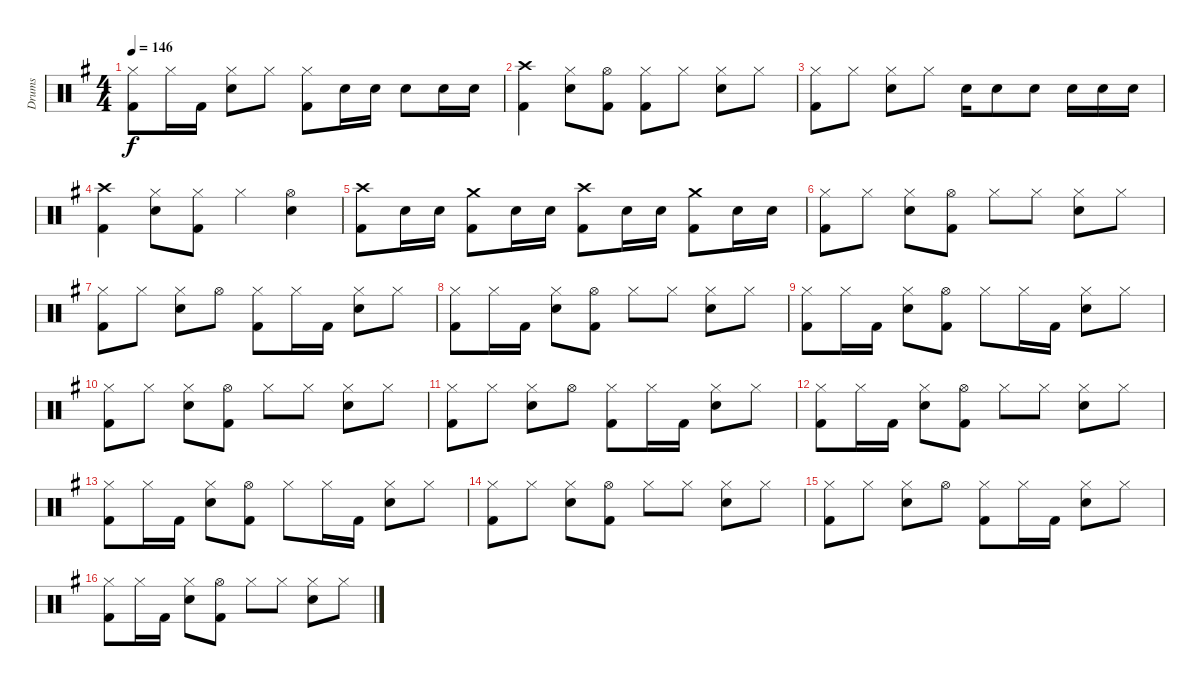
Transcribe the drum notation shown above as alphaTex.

\track ("Drums" "Drums") {instrument percussion}
\staff {score}
\articulation defaults
\ts (4 4)
\tempo 146
\clef neutral
\ks g
("Kick (hit) 2" "Hi-Hat (closed)").8{dy f} "Hi-Hat (closed)".16 "Kick (hit) 2".16 ("Snare (hit) 2" "Hi-Hat (closed)").8 "Hi-Hat (closed)".8 ("Kick (hit) 2" "Hi-Hat (closed)").8 "Snare (hit) 2".16 "Snare (hit) 2".16 "Snare (hit) 2".8 "Snare (hit) 2".16 "Snare (hit) 2".16 |
("Kick (hit) 2" "Crash high (hit)").4 ("Snare (hit) 2" "Hi-Hat (closed)").8 ("Kick (hit) 2" "Hi-Hat (open)").8 ("Kick (hit) 2" "Hi-Hat (closed)").8 "Hi-Hat (closed)".8 ("Snare (hit) 2" "Hi-Hat (closed)").8 "Hi-Hat (closed)".8 |
("Kick (hit) 2" "Hi-Hat (closed)").8 "Hi-Hat (closed)".8 ("Snare (hit) 2" "Hi-Hat (closed)").8 "Hi-Hat (closed)".8 "Snare (hit) 2".16 "Snare (hit) 2".8 "Snare (hit) 2".8 "Snare (hit) 2".16 "Snare (hit) 2".16 "Snare (hit) 2".16 |
("Kick (hit) 2" "Crash high (hit)").4 ("Snare (hit) 2" "Hi-Hat (closed)").8 ("Kick (hit) 2" "Hi-Hat (closed)").8 "Hi-Hat (closed)".4 ("Snare (hit) 2" "Hi-Hat (open)").4 |
("Kick (hit) 2" "Crash high (hit)").8 "Snare (hit) 2".16 "Snare (hit) 2".16 ("Kick (hit) 2" "Crash medium (hit)").8 "Snare (hit) 2".16 "Snare (hit) 2".16 ("Kick (hit) 2" "Crash high (hit)").8 "Snare (hit) 2".16 "Snare (hit) 2".16 ("Kick (hit) 2" "Crash medium (hit)").8 "Snare (hit) 2".16 "Snare (hit) 2".16 |
("Kick (hit) 2" "Hi-Hat (closed)").8 "Hi-Hat (closed)".8 ("Snare (hit) 2" "Hi-Hat (closed)").8 ("Kick (hit) 2" "Hi-Hat (open)").8 "Hi-Hat (closed)".8 "Hi-Hat (closed)".8 ("Snare (hit) 2" "Hi-Hat (closed)").8 "Hi-Hat (closed)".8 |
("Kick (hit) 2" "Hi-Hat (closed)").8 "Hi-Hat (closed)".8 ("Snare (hit) 2" "Hi-Hat (closed)").8 "Hi-Hat (open)".8 ("Kick (hit) 2" "Hi-Hat (closed)").8 "Hi-Hat (closed)".16 "Kick (hit) 2".16 ("Snare (hit) 2" "Hi-Hat (closed)").8 "Hi-Hat (closed)".8 |
("Kick (hit) 2" "Hi-Hat (closed)").8 "Hi-Hat (closed)".16 "Kick (hit) 2".16 ("Snare (hit) 2" "Hi-Hat (closed)").8 ("Kick (hit) 2" "Hi-Hat (open)").8 "Hi-Hat (closed)".8 "Hi-Hat (closed)".8 ("Snare (hit) 2" "Hi-Hat (closed)").8 "Hi-Hat (closed)".8 |
("Kick (hit) 2" "Hi-Hat (closed)").8 "Hi-Hat (closed)".16 "Kick (hit) 2".16 ("Snare (hit) 2" "Hi-Hat (closed)").8 ("Kick (hit) 2" "Hi-Hat (open)").8 "Hi-Hat (closed)".8 "Hi-Hat (closed)".16 "Kick (hit) 2".16 ("Snare (hit) 2" "Hi-Hat (closed)").8 "Hi-Hat (closed)".8 |
("Kick (hit) 2" "Hi-Hat (closed)").8 "Hi-Hat (closed)".8 ("Snare (hit) 2" "Hi-Hat (closed)").8 ("Kick (hit) 2" "Hi-Hat (open)").8 "Hi-Hat (closed)".8 "Hi-Hat (closed)".8 ("Snare (hit) 2" "Hi-Hat (closed)").8 "Hi-Hat (closed)".8 |
("Kick (hit) 2" "Hi-Hat (closed)").8 "Hi-Hat (closed)".8 ("Snare (hit) 2" "Hi-Hat (closed)").8 "Hi-Hat (open)".8 ("Kick (hit) 2" "Hi-Hat (closed)").8 "Hi-Hat (closed)".16 "Kick (hit) 2".16 ("Snare (hit) 2" "Hi-Hat (closed)").8 "Hi-Hat (closed)".8 |
("Kick (hit) 2" "Hi-Hat (closed)").8 "Hi-Hat (closed)".16 "Kick (hit) 2".16 ("Snare (hit) 2" "Hi-Hat (closed)").8 ("Kick (hit) 2" "Hi-Hat (open)").8 "Hi-Hat (closed)".8 "Hi-Hat (closed)".8 ("Snare (hit) 2" "Hi-Hat (closed)").8 "Hi-Hat (closed)".8 |
("Kick (hit) 2" "Hi-Hat (closed)").8 "Hi-Hat (closed)".16 "Kick (hit) 2".16 ("Snare (hit) 2" "Hi-Hat (closed)").8 ("Kick (hit) 2" "Hi-Hat (open)").8 "Hi-Hat (closed)".8 "Hi-Hat (closed)".16 "Kick (hit) 2".16 ("Snare (hit) 2" "Hi-Hat (closed)").8 "Hi-Hat (closed)".8 |
("Kick (hit) 2" "Hi-Hat (closed)").8 "Hi-Hat (closed)".8 ("Snare (hit) 2" "Hi-Hat (closed)").8 ("Kick (hit) 2" "Hi-Hat (open)").8 "Hi-Hat (closed)".8 "Hi-Hat (closed)".8 ("Snare (hit) 2" "Hi-Hat (closed)").8 "Hi-Hat (closed)".8 |
("Kick (hit) 2" "Hi-Hat (closed)").8 "Hi-Hat (closed)".8 ("Snare (hit) 2" "Hi-Hat (closed)").8 "Hi-Hat (open)".8 ("Kick (hit) 2" "Hi-Hat (closed)").8 "Hi-Hat (closed)".16 "Kick (hit) 2".16 ("Snare (hit) 2" "Hi-Hat (closed)").8 "Hi-Hat (closed)".8 |
("Kick (hit) 2" "Hi-Hat (closed)").8 "Hi-Hat (closed)".16 "Kick (hit) 2".16 ("Snare (hit) 2" "Hi-Hat (closed)").8 ("Kick (hit) 2" "Hi-Hat (open)").8 "Hi-Hat (closed)".8 "Hi-Hat (closed)".8 ("Snare (hit) 2" "Hi-Hat (closed)").8 "Hi-Hat (closed)".8
